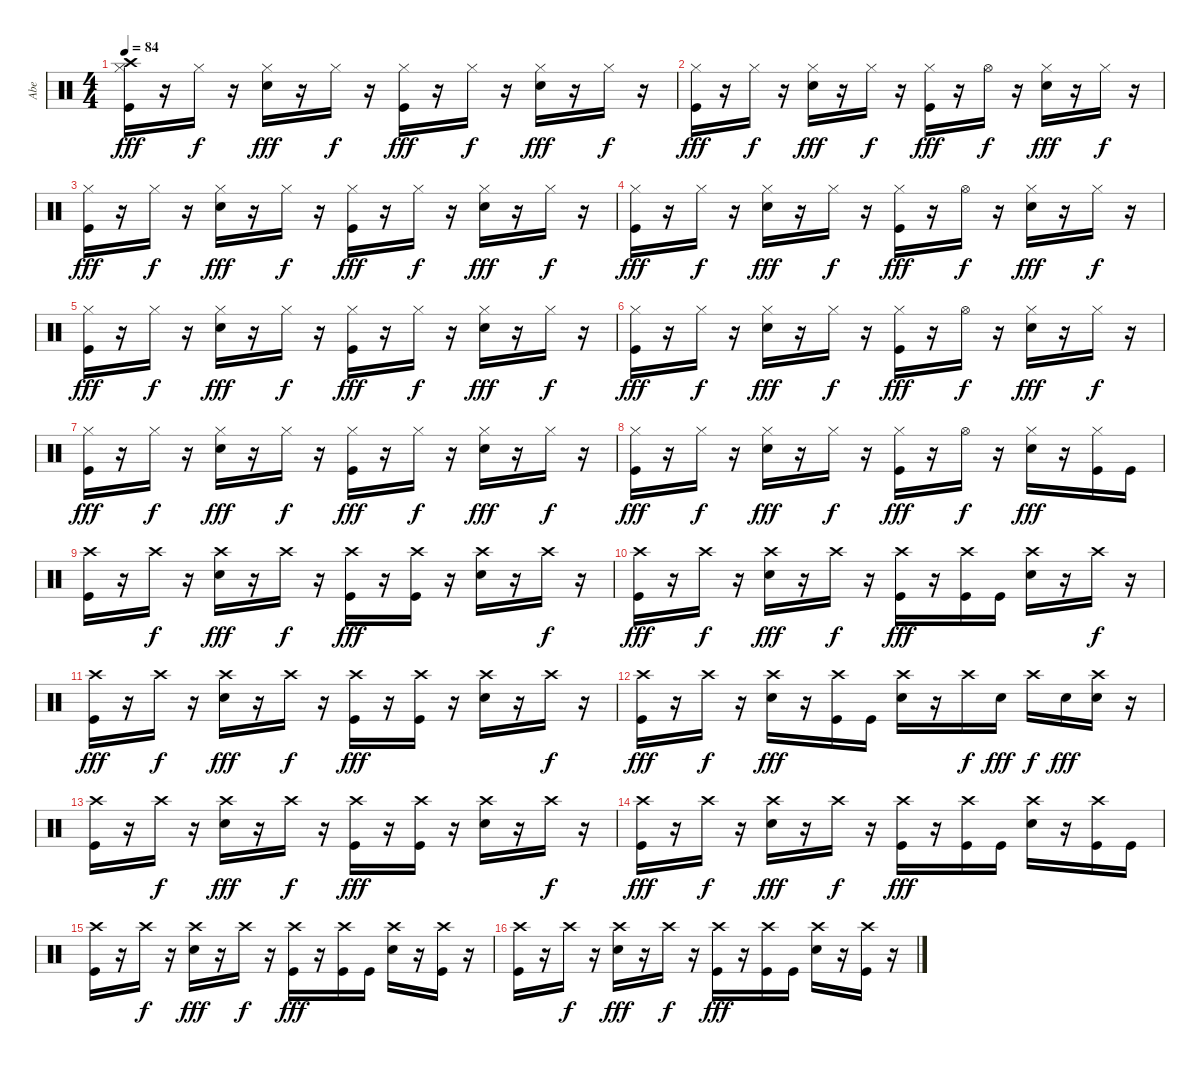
\track ("Abe" "Abe") {instrument percussion}
\staff {score}
\articulation defaults
\ts (4 4)
\tempo 84
\clef neutral
\ks c
("Crash high (hit)" "Hi-Hat (closed)" "Kick (hit)").16{dy fff} r.16 "Hi-Hat (closed)".16{dy f} r.16 ("Hi-Hat (closed)" "Electric Snare (hit)").16{dy fff} r.16 "Hi-Hat (closed)".16{dy f} r.16 ("Hi-Hat (closed)" "Kick (hit)").16{dy fff} r.16 "Hi-Hat (closed)".16{dy f} r.16 ("Hi-Hat (closed)" "Electric Snare (hit)").16{dy fff} r.16 "Hi-Hat (closed)".16{dy f} r.16 |
("Hi-Hat (closed)" "Kick (hit)").16{dy fff} r.16 "Hi-Hat (closed)".16{dy f} r.16 ("Hi-Hat (closed)" "Electric Snare (hit)").16{dy fff} r.16 "Hi-Hat (closed)".16{dy f} r.16 ("Hi-Hat (closed)" "Kick (hit)").16{dy fff} r.16 "Hi-Hat (open)".16{dy f} r.16 ("Hi-Hat (closed)" "Electric Snare (hit)").16{dy fff} r.16 "Hi-Hat (closed)".16{dy f} r.16 |
("Hi-Hat (closed)" "Kick (hit)").16{dy fff} r.16 "Hi-Hat (closed)".16{dy f} r.16 ("Hi-Hat (closed)" "Electric Snare (hit)").16{dy fff} r.16 "Hi-Hat (closed)".16{dy f} r.16 ("Hi-Hat (closed)" "Kick (hit)").16{dy fff} r.16 "Hi-Hat (closed)".16{dy f} r.16 ("Hi-Hat (closed)" "Electric Snare (hit)").16{dy fff} r.16 "Hi-Hat (closed)".16{dy f} r.16 |
("Hi-Hat (closed)" "Kick (hit)").16{dy fff} r.16 "Hi-Hat (closed)".16{dy f} r.16 ("Hi-Hat (closed)" "Electric Snare (hit)").16{dy fff} r.16 "Hi-Hat (closed)".16{dy f} r.16 ("Hi-Hat (closed)" "Kick (hit)").16{dy fff} r.16 "Hi-Hat (open)".16{dy f} r.16 ("Hi-Hat (closed)" "Electric Snare (hit)").16{dy fff} r.16 "Hi-Hat (closed)".16{dy f} r.16 |
("Hi-Hat (closed)" "Kick (hit)").16{dy fff} r.16 "Hi-Hat (closed)".16{dy f} r.16 ("Hi-Hat (closed)" "Electric Snare (hit)").16{dy fff} r.16 "Hi-Hat (closed)".16{dy f} r.16 ("Hi-Hat (closed)" "Kick (hit)").16{dy fff} r.16 "Hi-Hat (closed)".16{dy f} r.16 ("Hi-Hat (closed)" "Electric Snare (hit)").16{dy fff} r.16 "Hi-Hat (closed)".16{dy f} r.16 |
("Hi-Hat (closed)" "Kick (hit)").16{dy fff} r.16 "Hi-Hat (closed)".16{dy f} r.16 ("Hi-Hat (closed)" "Electric Snare (hit)").16{dy fff} r.16 "Hi-Hat (closed)".16{dy f} r.16 ("Hi-Hat (closed)" "Kick (hit)").16{dy fff} r.16 "Hi-Hat (open)".16{dy f} r.16 ("Hi-Hat (closed)" "Electric Snare (hit)").16{dy fff} r.16 "Hi-Hat (closed)".16{dy f} r.16 |
("Hi-Hat (closed)" "Kick (hit)").16{dy fff} r.16 "Hi-Hat (closed)".16{dy f} r.16 ("Hi-Hat (closed)" "Electric Snare (hit)").16{dy fff} r.16 "Hi-Hat (closed)".16{dy f} r.16 ("Hi-Hat (closed)" "Kick (hit)").16{dy fff} r.16 "Hi-Hat (closed)".16{dy f} r.16 ("Hi-Hat (closed)" "Electric Snare (hit)").16{dy fff} r.16 "Hi-Hat (closed)".16{dy f} r.16 |
("Hi-Hat (closed)" "Kick (hit)").16{dy fff} r.16 "Hi-Hat (closed)".16{dy f} r.16 ("Hi-Hat (closed)" "Electric Snare (hit)").16{dy fff} r.16 "Hi-Hat (closed)".16{dy f} r.16 ("Hi-Hat (closed)" "Kick (hit)").16{dy fff} r.16 "Hi-Hat (open)".16{dy f} r.16 ("Hi-Hat (closed)" "Electric Snare (hit)").16{dy fff} r.16 ("Hi-Hat (closed)" "Kick (hit)").16 "Kick (hit)".16 |
("Crash high (hit)" "Kick (hit)").16 r.16 "Crash high (hit)".16{dy f} r.16 ("Crash high (hit)" "Electric Snare (hit)").16{dy fff} r.16 "Crash high (hit)".16{dy f} r.16 ("Crash high (hit)" "Kick (hit)").16{dy fff} r.16 ("Crash high (hit)" "Kick (hit)").16 r.16 ("Crash high (hit)" "Electric Snare (hit)").16 r.16 "Crash high (hit)".16{dy f} r.16 |
("Crash high (hit)" "Kick (hit)").16{dy fff} r.16 "Crash high (hit)".16{dy f} r.16 ("Crash high (hit)" "Electric Snare (hit)").16{dy fff} r.16 "Crash high (hit)".16{dy f} r.16 ("Crash high (hit)" "Kick (hit)").16{dy fff} r.16 ("Crash high (hit)" "Kick (hit)").16 "Kick (hit)".16 ("Crash high (hit)" "Electric Snare (hit)").16 r.16 "Crash high (hit)".16{dy f} r.16 |
("Crash high (hit)" "Kick (hit)").16{dy fff} r.16 "Crash high (hit)".16{dy f} r.16 ("Crash high (hit)" "Electric Snare (hit)").16{dy fff} r.16 "Crash high (hit)".16{dy f} r.16 ("Crash high (hit)" "Kick (hit)").16{dy fff} r.16 ("Crash high (hit)" "Kick (hit)").16 r.16 ("Crash high (hit)" "Electric Snare (hit)").16 r.16 "Crash high (hit)".16{dy f} r.16 |
("Crash high (hit)" "Kick (hit)").16{dy fff} r.16 "Crash high (hit)".16{dy f} r.16 ("Crash high (hit)" "Electric Snare (hit)").16{dy fff} r.16 ("Crash high (hit)" "Kick (hit)").16 "Kick (hit)".16 ("Crash high (hit)" "Electric Snare (hit)").16 r.16 "Crash high (hit)".16{dy f} "Electric Snare (hit)".16{dy fff} "Crash high (hit)".16{dy f} "Electric Snare (hit)".16{dy fff} ("Crash high (hit)" "Electric Snare (hit)").16 r.16 |
("Crash high (hit)" "Kick (hit)").16 r.16 "Crash high (hit)".16{dy f} r.16 ("Crash high (hit)" "Electric Snare (hit)").16{dy fff} r.16 "Crash high (hit)".16{dy f} r.16 ("Crash high (hit)" "Kick (hit)").16{dy fff} r.16 ("Crash high (hit)" "Kick (hit)").16 r.16 ("Crash high (hit)" "Electric Snare (hit)").16 r.16 "Crash high (hit)".16{dy f} r.16 |
("Crash high (hit)" "Kick (hit)").16{dy fff} r.16 "Crash high (hit)".16{dy f} r.16 ("Crash high (hit)" "Electric Snare (hit)").16{dy fff} r.16 "Crash high (hit)".16{dy f} r.16 ("Crash high (hit)" "Kick (hit)").16{dy fff} r.16 ("Crash high (hit)" "Kick (hit)").16 "Kick (hit)".16 ("Crash high (hit)" "Electric Snare (hit)").16 r.16 ("Crash high (hit)" "Kick (hit)").16 "Kick (hit)".16 |
("Crash high (hit)" "Kick (hit)").16 r.16 "Crash high (hit)".16{dy f} r.16 ("Crash high (hit)" "Electric Snare (hit)").16{dy fff} r.16 "Crash high (hit)".16{dy f} r.16 ("Crash high (hit)" "Kick (hit)").16{dy fff} r.16 ("Crash high (hit)" "Kick (hit)").16 "Kick (hit)".16 ("Crash high (hit)" "Electric Snare (hit)").16 r.16 ("Crash high (hit)" "Kick (hit)").16 r.16 |
("Crash high (hit)" "Kick (hit)").16 r.16 "Crash high (hit)".16{dy f} r.16 ("Crash high (hit)" "Electric Snare (hit)").16{dy fff} r.16 "Crash high (hit)".16{dy f} r.16 ("Crash high (hit)" "Kick (hit)").16{dy fff} r.16 ("Crash high (hit)" "Kick (hit)").16 "Kick (hit)".16 ("Crash high (hit)" "Electric Snare (hit)").16 r.16 ("Crash high (hit)" "Kick (hit)").16 r.16
